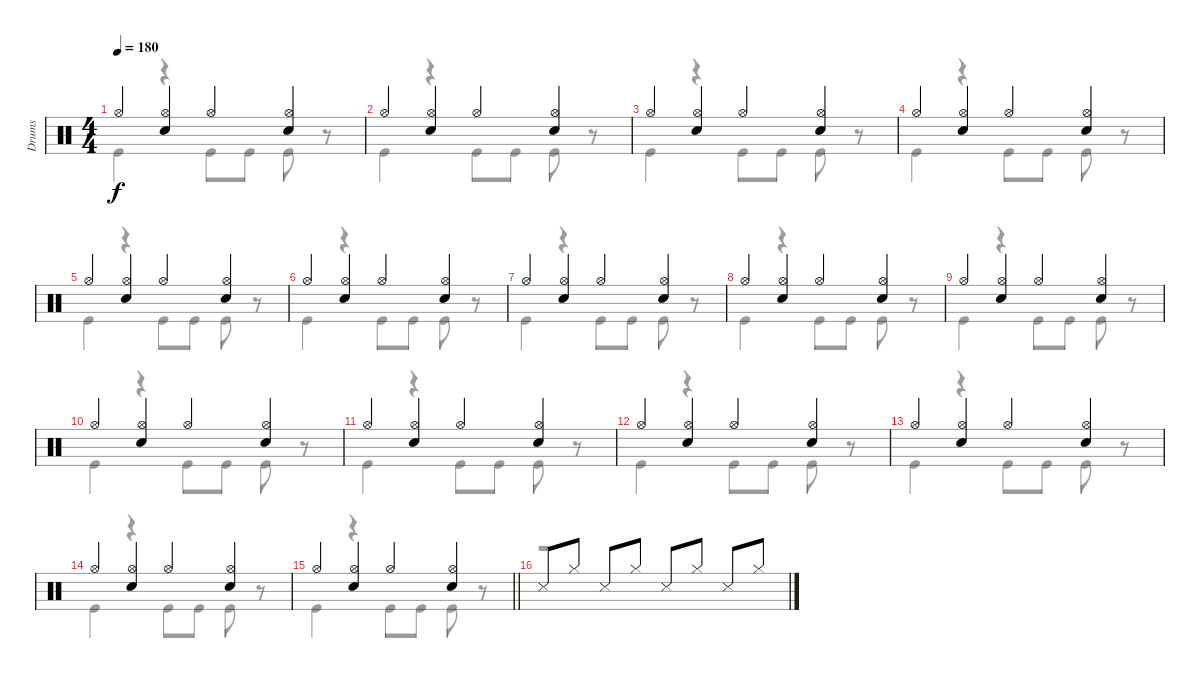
\track ("Drums" "Drums") {instrument percussion}
\staff {score}
\articulation defaults
\voice
\ts (4 4)
\tempo 180
\clef neutral
\ks c "Hi-Hat (open)".4{dy f}
("Hi-Hat (open)" "Snare (hit) 2").4 "Hi-Hat (open)".4 ("Hi-Hat (open)" "Snare (hit) 2").4 |
"Hi-Hat (open)".4 ("Hi-Hat (open)" "Snare (hit) 2").4 "Hi-Hat (open)".4 ("Hi-Hat (open)" "Snare (hit) 2").4 |
"Hi-Hat (open)".4 ("Hi-Hat (open)" "Snare (hit) 2").4 "Hi-Hat (open)".4 ("Hi-Hat (open)" "Snare (hit) 2").4 |
"Hi-Hat (open)".4 ("Hi-Hat (open)" "Snare (hit) 2").4 "Hi-Hat (open)".4 ("Hi-Hat (open)" "Snare (hit) 2").4 |
"Hi-Hat (open)".4 ("Hi-Hat (open)" "Snare (hit) 2").4 "Hi-Hat (open)".4 ("Hi-Hat (open)" "Snare (hit) 2").4 |
"Hi-Hat (open)".4 ("Hi-Hat (open)" "Snare (hit) 2").4 "Hi-Hat (open)".4 ("Hi-Hat (open)" "Snare (hit) 2").4 |
"Hi-Hat (open)".4 ("Hi-Hat (open)" "Snare (hit) 2").4 "Hi-Hat (open)".4 ("Hi-Hat (open)" "Snare (hit) 2").4 |
"Hi-Hat (open)".4 ("Hi-Hat (open)" "Snare (hit) 2").4 "Hi-Hat (open)".4 ("Hi-Hat (open)" "Snare (hit) 2").4 |
"Hi-Hat (open)".4 ("Hi-Hat (open)" "Snare (hit) 2").4 "Hi-Hat (open)".4 ("Hi-Hat (open)" "Snare (hit) 2").4 |
"Hi-Hat (open)".4 ("Hi-Hat (open)" "Snare (hit) 2").4 "Hi-Hat (open)".4 ("Hi-Hat (open)" "Snare (hit) 2").4 |
"Hi-Hat (open)".4 ("Hi-Hat (open)" "Snare (hit) 2").4 "Hi-Hat (open)".4 ("Hi-Hat (open)" "Snare (hit) 2").4 |
"Hi-Hat (open)".4 ("Hi-Hat (open)" "Snare (hit) 2").4 "Hi-Hat (open)".4 ("Hi-Hat (open)" "Snare (hit) 2").4 |
"Hi-Hat (open)".4 ("Hi-Hat (open)" "Snare (hit) 2").4 "Hi-Hat (open)".4 ("Hi-Hat (open)" "Snare (hit) 2").4 |
"Hi-Hat (open)".4 ("Hi-Hat (open)" "Snare (hit) 2").4 "Hi-Hat (open)".4 ("Hi-Hat (open)" "Snare (hit) 2").4 |
\barLineRight lightlight "Hi-Hat (open)".4
("Hi-Hat (open)" "Snare (hit) 2").4 "Hi-Hat (open)".4 ("Hi-Hat (open)" "Snare (hit) 2").4 |
"Snare (side stick) 3".8 "Hi-Hat (closed)".8 "Snare (side stick) 3".8 "Hi-Hat (closed)".8 "Snare (side stick) 3".8 "Hi-Hat (closed)".8 "Snare (side stick) 3".8 "Hi-Hat (closed)".8
\voice
\clef neutral
\ottava regular
\simile none
\ks c "Kick (hit)".4{dy f}
r.4 "Kick (hit)".8 "Kick (hit)".8 "Kick (hit)".8 r.8 |
"Kick (hit)".4 r.4 "Kick (hit)".8 "Kick (hit)".8 "Kick (hit)".8 r.8 |
"Kick (hit)".4 r.4 "Kick (hit)".8 "Kick (hit)".8 "Kick (hit)".8 r.8 |
"Kick (hit)".4 r.4 "Kick (hit)".8 "Kick (hit)".8 "Kick (hit)".8 r.8 |
"Kick (hit)".4 r.4 "Kick (hit)".8 "Kick (hit)".8 "Kick (hit)".8 r.8 |
"Kick (hit)".4 r.4 "Kick (hit)".8 "Kick (hit)".8 "Kick (hit)".8 r.8 |
"Kick (hit)".4 r.4 "Kick (hit)".8 "Kick (hit)".8 "Kick (hit)".8 r.8 |
"Kick (hit)".4 r.4 "Kick (hit)".8 "Kick (hit)".8 "Kick (hit)".8 r.8 |
"Kick (hit)".4 r.4 "Kick (hit)".8 "Kick (hit)".8 "Kick (hit)".8 r.8 |
"Kick (hit)".4 r.4 "Kick (hit)".8 "Kick (hit)".8 "Kick (hit)".8 r.8 |
"Kick (hit)".4 r.4 "Kick (hit)".8 "Kick (hit)".8 "Kick (hit)".8 r.8 |
"Kick (hit)".4 r.4 "Kick (hit)".8 "Kick (hit)".8 "Kick (hit)".8 r.8 |
"Kick (hit)".4 r.4 "Kick (hit)".8 "Kick (hit)".8 "Kick (hit)".8 r.8 |
"Kick (hit)".4 r.4 "Kick (hit)".8 "Kick (hit)".8 "Kick (hit)".8 r.8 |
\barLineRight lightlight "Kick (hit)".4
r.4 "Kick (hit)".8 "Kick (hit)".8 "Kick (hit)".8 r.8 |
r.1
